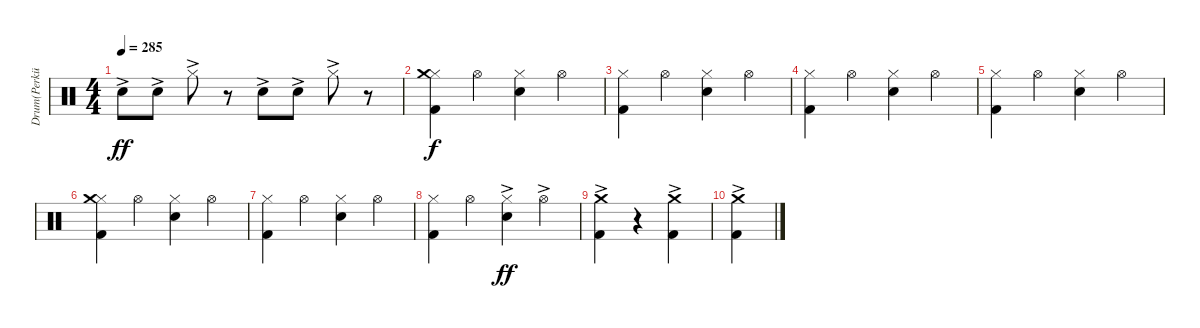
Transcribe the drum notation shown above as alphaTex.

\track ("Drum(Perküsyon)" "Drum(Perkü") {instrument percussion}
\staff {score}
\articulation defaults
\ts (4 4)
\tempo 285
\clef neutral
\ks c "Electric Snare (hit)"{ac}.8{dy ff} "Electric Snare (hit)"{ac}.8 "Hi-Hat (closed)"{ac}.8
r.8 "Electric Snare (hit)"{ac}.8 "Electric Snare (hit)"{ac}.8 "Hi-Hat (closed)"{ac}.8 r.8 |
("Hi-Hat (closed)" "Kick (hit) 2" "Crash medium (hit)").4{dy f} "Hi-Hat (open)".4 ("Hi-Hat (closed)" "Electric Snare (hit)").4 "Hi-Hat (open)".4 |
("Hi-Hat (closed)" "Kick (hit) 2").4 "Hi-Hat (open)".4 ("Hi-Hat (closed)" "Electric Snare (hit)").4 "Hi-Hat (open)".4 |
("Hi-Hat (closed)" "Kick (hit) 2").4 "Hi-Hat (open)".4 ("Hi-Hat (closed)" "Electric Snare (hit)").4 "Hi-Hat (open)".4 |
("Hi-Hat (closed)" "Kick (hit) 2").4 "Hi-Hat (open)".4 ("Hi-Hat (closed)" "Electric Snare (hit)").4 "Hi-Hat (open)".4 |
("Hi-Hat (closed)" "Kick (hit) 2" "Crash medium (hit)").4 "Hi-Hat (open)".4 ("Hi-Hat (closed)" "Electric Snare (hit)").4 "Hi-Hat (open)".4 |
("Hi-Hat (closed)" "Kick (hit) 2").4 "Hi-Hat (open)".4 ("Hi-Hat (closed)" "Electric Snare (hit)").4 "Hi-Hat (open)".4 |
("Hi-Hat (closed)" "Kick (hit) 2").4 "Hi-Hat (open)".4 ("Hi-Hat (closed)" "Electric Snare (hit)"{ac}).4{dy ff} "Hi-Hat (open)"{ac}.4 |
("Kick (hit) 2"{ac} "Crash medium (hit)"{ac}).4 r.4 ("Kick (hit) 2"{ac} "Crash medium (hit)"{ac}).4 |
("Kick (hit) 2"{ac} "Crash medium (hit)"{ac}).4
